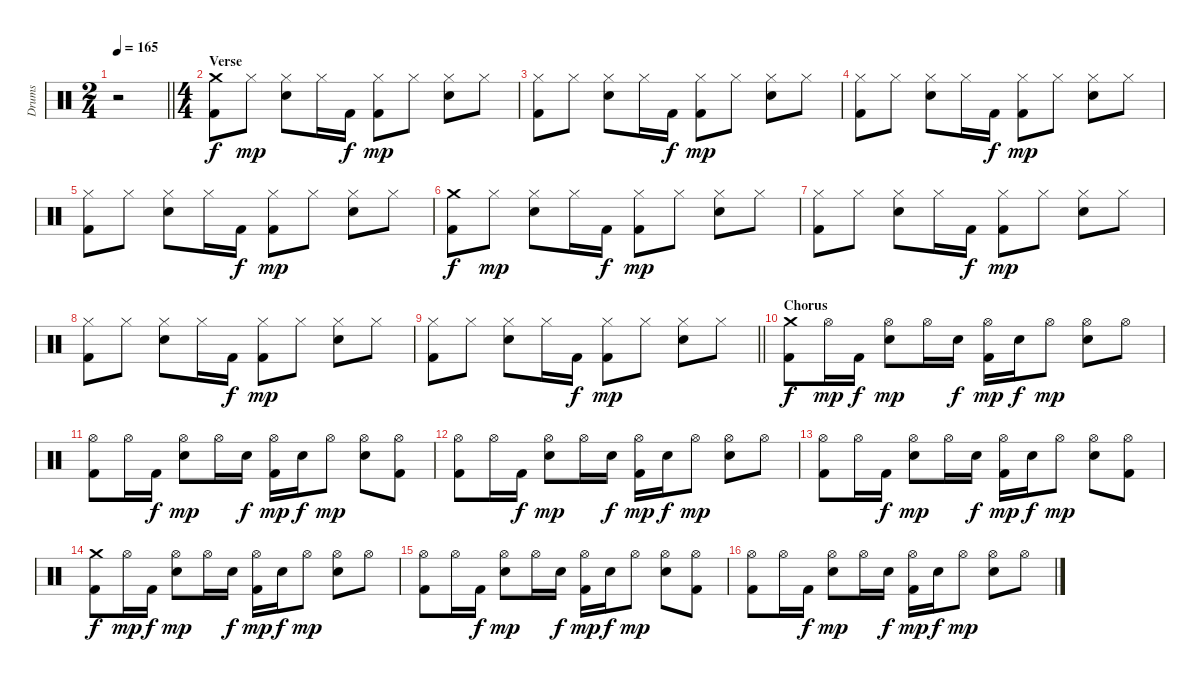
\track ("Drums" "Drums") {instrument percussion}
\staff {score}
\articulation defaults
\ts (2 4)
\tempo 165
\clef neutral
\barLineRight lightlight
\ks c
r.2{dy mp} |
\ts (4 4)
\section ("" "Verse")
("Crash medium (hit)" "Kick (hit) 2").8{dy f} "Hi-Hat (closed)".8{dy mp} ("Hi-Hat (closed)" "Snare (hit) 2").8 "Hi-Hat (closed)".16 "Kick (hit) 2".16{dy f} ("Hi-Hat (closed)" "Kick (hit) 2").8{dy mp} "Hi-Hat (closed)".8 ("Hi-Hat (closed)" "Snare (hit) 2").8 "Hi-Hat (closed)".8 |
("Hi-Hat (closed)" "Kick (hit) 2").8 "Hi-Hat (closed)".8 ("Hi-Hat (closed)" "Snare (hit) 2").8 "Hi-Hat (closed)".16 "Kick (hit) 2".16{dy f} ("Hi-Hat (closed)" "Kick (hit) 2").8{dy mp} "Hi-Hat (closed)".8 ("Hi-Hat (closed)" "Snare (hit) 2").8 "Hi-Hat (closed)".8 |
("Hi-Hat (closed)" "Kick (hit) 2").8 "Hi-Hat (closed)".8 ("Hi-Hat (closed)" "Snare (hit) 2").8 "Hi-Hat (closed)".16 "Kick (hit) 2".16{dy f} ("Hi-Hat (closed)" "Kick (hit) 2").8{dy mp} "Hi-Hat (closed)".8 ("Hi-Hat (closed)" "Snare (hit) 2").8 "Hi-Hat (closed)".8 |
("Hi-Hat (closed)" "Kick (hit) 2").8 "Hi-Hat (closed)".8 ("Hi-Hat (closed)" "Snare (hit) 2").8 "Hi-Hat (closed)".16 "Kick (hit) 2".16{dy f} ("Hi-Hat (closed)" "Kick (hit) 2").8{dy mp} "Hi-Hat (closed)".8 ("Hi-Hat (closed)" "Snare (hit) 2").8 "Hi-Hat (closed)".8 |
("Crash medium (hit)" "Kick (hit) 2").8{dy f} "Hi-Hat (closed)".8{dy mp} ("Hi-Hat (closed)" "Snare (hit) 2").8 "Hi-Hat (closed)".16 "Kick (hit) 2".16{dy f} ("Hi-Hat (closed)" "Kick (hit) 2").8{dy mp} "Hi-Hat (closed)".8 ("Hi-Hat (closed)" "Snare (hit) 2").8 "Hi-Hat (closed)".8 |
("Hi-Hat (closed)" "Kick (hit) 2").8 "Hi-Hat (closed)".8 ("Hi-Hat (closed)" "Snare (hit) 2").8 "Hi-Hat (closed)".16 "Kick (hit) 2".16{dy f} ("Hi-Hat (closed)" "Kick (hit) 2").8{dy mp} "Hi-Hat (closed)".8 ("Hi-Hat (closed)" "Snare (hit) 2").8 "Hi-Hat (closed)".8 |
("Hi-Hat (closed)" "Kick (hit) 2").8 "Hi-Hat (closed)".8 ("Hi-Hat (closed)" "Snare (hit) 2").8 "Hi-Hat (closed)".16 "Kick (hit) 2".16{dy f} ("Hi-Hat (closed)" "Kick (hit) 2").8{dy mp} "Hi-Hat (closed)".8 ("Hi-Hat (closed)" "Snare (hit) 2").8 "Hi-Hat (closed)".8 |
\barLineRight lightlight
("Hi-Hat (closed)" "Kick (hit) 2").8 "Hi-Hat (closed)".8 ("Hi-Hat (closed)" "Snare (hit) 2").8 "Hi-Hat (closed)".16 "Kick (hit) 2".16{dy f} ("Hi-Hat (closed)" "Kick (hit) 2").8{dy mp} "Hi-Hat (closed)".8 ("Hi-Hat (closed)" "Snare (hit) 2").8 "Hi-Hat (closed)".8 |
\section ("" "Chorus")
("Crash medium (hit)" "Kick (hit) 2").8{dy f} "Hi-Hat (open)".16{dy mp} "Kick (hit) 2".16{dy f} ("Hi-Hat (open)" "Snare (hit) 2").8{dy mp} "Hi-Hat (open)".16 "Snare (hit) 2".16{dy f} ("Hi-Hat (open)" "Kick (hit) 2").16{dy mp} "Snare (hit) 2".16{dy f} "Hi-Hat (open)".8{dy mp} ("Hi-Hat (open)" "Snare (hit) 2").8 "Hi-Hat (open)".8 |
("Hi-Hat (open)" "Kick (hit) 2").8 "Hi-Hat (open)".16 "Kick (hit) 2".16{dy f} ("Hi-Hat (open)" "Snare (hit) 2").8{dy mp} "Hi-Hat (open)".16 "Snare (hit) 2".16{dy f} ("Hi-Hat (open)" "Kick (hit) 2").16{dy mp} "Snare (hit) 2".16{dy f} "Hi-Hat (open)".8{dy mp} ("Hi-Hat (open)" "Snare (hit) 2").8 ("Hi-Hat (open)" "Kick (hit) 2").8 |
("Hi-Hat (open)" "Kick (hit) 2").8 "Hi-Hat (open)".16 "Kick (hit) 2".16{dy f} ("Hi-Hat (open)" "Snare (hit) 2").8{dy mp} "Hi-Hat (open)".16 "Snare (hit) 2".16{dy f} ("Hi-Hat (open)" "Kick (hit) 2").16{dy mp} "Snare (hit) 2".16{dy f} "Hi-Hat (open)".8{dy mp} ("Hi-Hat (open)" "Snare (hit) 2").8 "Hi-Hat (open)".8 |
("Hi-Hat (open)" "Kick (hit) 2").8 "Hi-Hat (open)".16 "Kick (hit) 2".16{dy f} ("Hi-Hat (open)" "Snare (hit) 2").8{dy mp} "Hi-Hat (open)".16 "Snare (hit) 2".16{dy f} ("Hi-Hat (open)" "Kick (hit) 2").16{dy mp} "Snare (hit) 2".16{dy f} "Hi-Hat (open)".8{dy mp} ("Hi-Hat (open)" "Snare (hit) 2").8 ("Hi-Hat (open)" "Kick (hit) 2").8 |
("Crash medium (hit)" "Kick (hit) 2").8{dy f} "Hi-Hat (open)".16{dy mp} "Kick (hit) 2".16{dy f} ("Hi-Hat (open)" "Snare (hit) 2").8{dy mp} "Hi-Hat (open)".16 "Snare (hit) 2".16{dy f} ("Hi-Hat (open)" "Kick (hit) 2").16{dy mp} "Snare (hit) 2".16{dy f} "Hi-Hat (open)".8{dy mp} ("Hi-Hat (open)" "Snare (hit) 2").8 "Hi-Hat (open)".8 |
("Hi-Hat (open)" "Kick (hit) 2").8 "Hi-Hat (open)".16 "Kick (hit) 2".16{dy f} ("Hi-Hat (open)" "Snare (hit) 2").8{dy mp} "Hi-Hat (open)".16 "Snare (hit) 2".16{dy f} ("Hi-Hat (open)" "Kick (hit) 2").16{dy mp} "Snare (hit) 2".16{dy f} "Hi-Hat (open)".8{dy mp} ("Hi-Hat (open)" "Snare (hit) 2").8 ("Hi-Hat (open)" "Kick (hit) 2").8 |
("Hi-Hat (open)" "Kick (hit) 2").8 "Hi-Hat (open)".16 "Kick (hit) 2".16{dy f} ("Hi-Hat (open)" "Snare (hit) 2").8{dy mp} "Hi-Hat (open)".16 "Snare (hit) 2".16{dy f} ("Hi-Hat (open)" "Kick (hit) 2").16{dy mp} "Snare (hit) 2".16{dy f} "Hi-Hat (open)".8{dy mp} ("Hi-Hat (open)" "Snare (hit) 2").8 "Hi-Hat (open)".8
